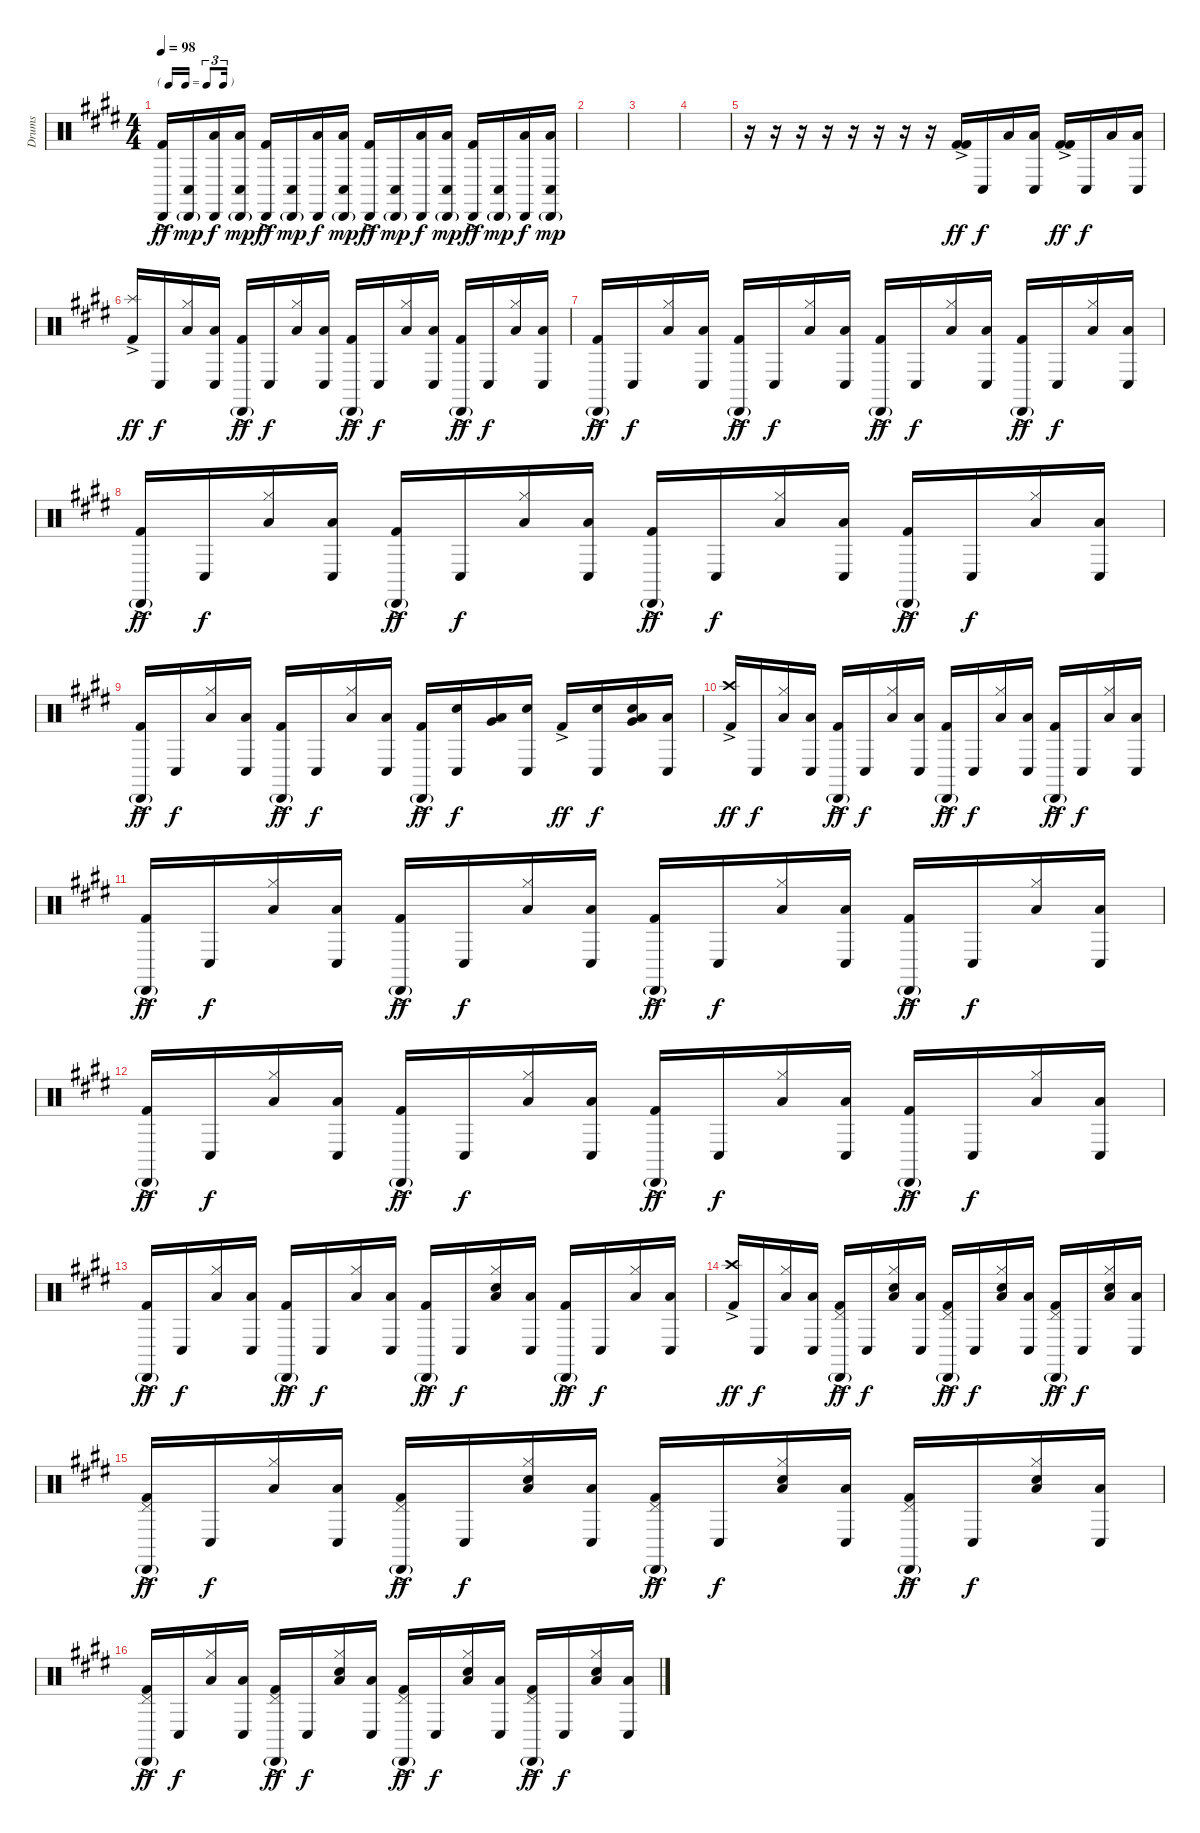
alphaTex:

\track ("Drums" "Drums") {instrument percussion}
\staff {score}
\articulation defaults
\ts (4 4)
\tf triplet16th
\tempo 98
\clef neutral
\ks e
("Cabasa (hit)" "Kick (hit) 2"{ac}).16{dy ff} ("Cabasa (hit)"{g} "Conga low (hit)").16{dy mp} ("Cabasa (hit)" "Low Tom (hit)").16{dy f} ("Cabasa (hit)"{g} "Low Tom (hit)" "Conga low (hit)").16{dy mp} ("Cabasa (hit)" "Kick (hit) 2"{ac}).16{dy ff} ("Cabasa (hit)"{g} "Conga low (hit)").16{dy mp} ("Cabasa (hit)" "Low Tom (hit)").16{dy f} ("Cabasa (hit)"{g} "Low Tom (hit)" "Conga low (hit)").16{dy mp} ("Cabasa (hit)" "Kick (hit) 2"{ac}).16{dy ff} ("Cabasa (hit)"{g} "Conga low (hit)").16{dy mp} ("Cabasa (hit)" "Low Tom (hit)").16{dy f} ("Cabasa (hit)"{g} "Low Tom (hit)" "Conga low (hit)").16{dy mp} ("Cabasa (hit)" "Kick (hit) 2"{ac}).16{dy ff} ("Cabasa (hit)"{g} "Conga low (hit)").16{dy mp} ("Cabasa (hit)" "Low Tom (hit)").16{dy f} ("Cabasa (hit)"{g} "Low Tom (hit)" "Conga low (hit)").16{dy mp} |
|
|
|
r.16 r.16 r.16 r.16 r.16 r.16 r.16 r.16 ("Kick (hit) 2"{ac} "Kick (hit) 2"{ac}).16{dy ff} "Conga low (hit)".16{dy f} "Low Tom (hit)".16 ("Low Tom (hit)" "Conga low (hit)").16 ("Kick (hit) 2"{ac} "Kick (hit) 2"{ac}).16{dy ff} "Conga low (hit)".16{dy f} "Low Tom (hit)".16 ("Low Tom (hit)" "Conga low (hit)").16 |
("Splash (hit)" "Kick (hit) 2"{ac}).16{dy ff} "Conga low (hit)".16{dy f} ("Hi-Hat (closed)" "Low Tom (hit)").16 ("Low Tom (hit)" "Conga low (hit)").16 ("Cabasa (hit)"{g} "Kick (hit) 2"{ac}).16{dy ff} "Conga low (hit)".16{dy f} ("Hi-Hat (closed)" "Low Tom (hit)").16 ("Low Tom (hit)" "Conga low (hit)").16 ("Cabasa (hit)"{g} "Kick (hit) 2"{ac}).16{dy ff} "Conga low (hit)".16{dy f} ("Hi-Hat (closed)" "Low Tom (hit)").16 ("Low Tom (hit)" "Conga low (hit)").16 ("Cabasa (hit)"{g} "Kick (hit) 2"{ac}).16{dy ff} "Conga low (hit)".16{dy f} ("Hi-Hat (closed)" "Low Tom (hit)").16 ("Low Tom (hit)" "Conga low (hit)").16 |
("Cabasa (hit)"{g} "Kick (hit) 2"{ac}).16{dy ff} "Conga low (hit)".16{dy f} ("Hi-Hat (closed)" "Low Tom (hit)").16 ("Low Tom (hit)" "Conga low (hit)").16 ("Cabasa (hit)"{g} "Kick (hit) 2"{ac}).16{dy ff} "Conga low (hit)".16{dy f} ("Hi-Hat (closed)" "Low Tom (hit)").16 ("Low Tom (hit)" "Conga low (hit)").16 ("Cabasa (hit)"{g} "Kick (hit) 2"{ac}).16{dy ff} "Conga low (hit)".16{dy f} ("Hi-Hat (closed)" "Low Tom (hit)").16 ("Low Tom (hit)" "Conga low (hit)").16 ("Cabasa (hit)"{g} "Kick (hit) 2"{ac}).16{dy ff} "Conga low (hit)".16{dy f} ("Hi-Hat (closed)" "Low Tom (hit)").16 ("Low Tom (hit)" "Conga low (hit)").16 |
("Cabasa (hit)"{g} "Kick (hit) 2"{ac}).16{dy ff} "Conga low (hit)".16{dy f} ("Hi-Hat (closed)" "Low Tom (hit)").16 ("Low Tom (hit)" "Conga low (hit)").16 ("Cabasa (hit)"{g} "Kick (hit) 2"{ac}).16{dy ff} "Conga low (hit)".16{dy f} ("Hi-Hat (closed)" "Low Tom (hit)").16 ("Low Tom (hit)" "Conga low (hit)").16 ("Cabasa (hit)"{g} "Kick (hit) 2"{ac}).16{dy ff} "Conga low (hit)".16{dy f} ("Hi-Hat (closed)" "Low Tom (hit)").16 ("Low Tom (hit)" "Conga low (hit)").16 ("Cabasa (hit)"{g} "Kick (hit) 2"{ac}).16{dy ff} "Conga low (hit)".16{dy f} ("Hi-Hat (closed)" "Low Tom (hit)").16 ("Low Tom (hit)" "Conga low (hit)").16 |
("Cabasa (hit)"{g} "Kick (hit) 2"{ac}).16{dy ff} "Conga low (hit)".16{dy f} ("Hi-Hat (closed)" "Low Tom (hit)").16 ("Low Tom (hit)" "Conga low (hit)").16 ("Cabasa (hit)"{g} "Kick (hit) 2"{ac}).16{dy ff} "Conga low (hit)".16{dy f} ("Hi-Hat (closed)" "Low Tom (hit)").16 ("Low Tom (hit)" "Conga low (hit)").16 ("Cabasa (hit)"{g} "Kick (hit) 2"{ac}).16{dy ff} ("Conga low (hit)" "Electric Snare (hit)").16{dy f} ("Low Tom (hit)" "Very Low Tom (hit)").16 ("Conga low (hit)" "Electric Snare (hit)").16 "Kick (hit) 2"{ac}.16{dy ff} ("Conga low (hit)" "Electric Snare (hit)").16{dy f} ("Low Tom (hit)" "Very Low Tom (hit)" "Electric Snare (hit)").16 ("Low Tom (hit)" "Conga low (hit)").16 |
("Crash high (hit)" "Kick (hit) 2"{ac}).16{dy ff} "Conga low (hit)".16{dy f} ("Hi-Hat (closed)" "Low Tom (hit)").16 ("Low Tom (hit)" "Conga low (hit)").16 ("Cabasa (hit)"{g} "Kick (hit) 2"{ac}).16{dy ff} "Conga low (hit)".16{dy f} ("Hi-Hat (closed)" "Low Tom (hit)").16 ("Low Tom (hit)" "Conga low (hit)").16 ("Cabasa (hit)"{g} "Kick (hit) 2"{ac}).16{dy ff} "Conga low (hit)".16{dy f} ("Hi-Hat (closed)" "Low Tom (hit)").16 ("Low Tom (hit)" "Conga low (hit)").16 ("Cabasa (hit)"{g} "Kick (hit) 2"{ac}).16{dy ff} "Conga low (hit)".16{dy f} ("Hi-Hat (closed)" "Low Tom (hit)").16 ("Low Tom (hit)" "Conga low (hit)").16 |
("Cabasa (hit)"{g} "Kick (hit) 2"{ac}).16{dy ff} "Conga low (hit)".16{dy f} ("Hi-Hat (closed)" "Low Tom (hit)").16 ("Low Tom (hit)" "Conga low (hit)").16 ("Cabasa (hit)"{g} "Kick (hit) 2"{ac}).16{dy ff} "Conga low (hit)".16{dy f} ("Hi-Hat (closed)" "Low Tom (hit)").16 ("Low Tom (hit)" "Conga low (hit)").16 ("Cabasa (hit)"{g} "Kick (hit) 2"{ac}).16{dy ff} "Conga low (hit)".16{dy f} ("Hi-Hat (closed)" "Low Tom (hit)").16 ("Low Tom (hit)" "Conga low (hit)").16 ("Cabasa (hit)"{g} "Kick (hit) 2"{ac}).16{dy ff} "Conga low (hit)".16{dy f} ("Hi-Hat (closed)" "Low Tom (hit)").16 ("Low Tom (hit)" "Conga low (hit)").16 |
("Cabasa (hit)"{g} "Kick (hit) 2"{ac}).16{dy ff} "Conga low (hit)".16{dy f} ("Hi-Hat (closed)" "Low Tom (hit)").16 ("Low Tom (hit)" "Conga low (hit)").16 ("Cabasa (hit)"{g} "Kick (hit) 2"{ac}).16{dy ff} "Conga low (hit)".16{dy f} ("Hi-Hat (closed)" "Low Tom (hit)").16 ("Low Tom (hit)" "Conga low (hit)").16 ("Cabasa (hit)"{g} "Kick (hit) 2"{ac}).16{dy ff} "Conga low (hit)".16{dy f} ("Hi-Hat (closed)" "Low Tom (hit)").16 ("Low Tom (hit)" "Conga low (hit)").16 ("Cabasa (hit)"{g} "Kick (hit) 2"{ac}).16{dy ff} "Conga low (hit)".16{dy f} ("Hi-Hat (closed)" "Low Tom (hit)").16 ("Low Tom (hit)" "Conga low (hit)").16 |
("Cabasa (hit)"{g} "Kick (hit) 2"{ac}).16{dy ff} "Conga low (hit)".16{dy f} ("Hi-Hat (closed)" "Low Tom (hit)").16 ("Low Tom (hit)" "Conga low (hit)").16 ("Cabasa (hit)"{g} "Kick (hit) 2"{ac}).16{dy ff} "Conga low (hit)".16{dy f} ("Hi-Hat (closed)" "Low Tom (hit)").16 ("Low Tom (hit)" "Conga low (hit)").16 ("Cabasa (hit)"{g} "Kick (hit) 2"{ac}).16{dy ff} "Conga low (hit)".16{dy f} ("Hi-Hat (closed)" "Low Tom (hit)" "Snare (hit) 2").16 ("Low Tom (hit)" "Conga low (hit)").16 ("Cabasa (hit)"{g} "Kick (hit) 2"{ac}).16{dy ff} "Conga low (hit)".16{dy f} ("Hi-Hat (closed)" "Low Tom (hit)").16 ("Low Tom (hit)" "Conga low (hit)").16 |
("Crash high (hit)" "Kick (hit) 2"{ac}).16{dy ff} "Conga low (hit)".16{dy f} ("Hi-Hat (closed)" "Low Tom (hit)").16 ("Low Tom (hit)" "Conga low (hit)").16 ("Pedal Hi-Hat (hit)" "Cabasa (hit)"{g} "Kick (hit) 2"{ac}).16{dy ff} "Conga low (hit)".16{dy f} ("Hi-Hat (closed)" "Low Tom (hit)" "Hand Clap (hit)").16 ("Low Tom (hit)" "Conga low (hit)").16 ("Pedal Hi-Hat (hit)" "Cabasa (hit)"{g} "Kick (hit) 2"{ac}).16{dy ff} "Conga low (hit)".16{dy f} ("Hi-Hat (closed)" "Low Tom (hit)" "Hand Clap (hit)").16 ("Low Tom (hit)" "Conga low (hit)").16 ("Pedal Hi-Hat (hit)" "Cabasa (hit)"{g} "Kick (hit) 2"{ac}).16{dy ff} "Conga low (hit)".16{dy f} ("Hi-Hat (closed)" "Low Tom (hit)" "Hand Clap (hit)").16 ("Low Tom (hit)" "Conga low (hit)").16 |
("Pedal Hi-Hat (hit)" "Cabasa (hit)"{g} "Kick (hit) 2"{ac}).16{dy ff} "Conga low (hit)".16{dy f} ("Hi-Hat (closed)" "Low Tom (hit)").16 ("Low Tom (hit)" "Conga low (hit)").16 ("Pedal Hi-Hat (hit)" "Cabasa (hit)"{g} "Kick (hit) 2"{ac}).16{dy ff} "Conga low (hit)".16{dy f} ("Hi-Hat (closed)" "Low Tom (hit)" "Hand Clap (hit)").16 ("Low Tom (hit)" "Conga low (hit)").16 ("Pedal Hi-Hat (hit)" "Cabasa (hit)"{g} "Kick (hit) 2"{ac}).16{dy ff} "Conga low (hit)".16{dy f} ("Hi-Hat (closed)" "Low Tom (hit)" "Hand Clap (hit)").16 ("Low Tom (hit)" "Conga low (hit)").16 ("Pedal Hi-Hat (hit)" "Cabasa (hit)"{g} "Kick (hit) 2"{ac}).16{dy ff} "Conga low (hit)".16{dy f} ("Hi-Hat (closed)" "Low Tom (hit)" "Hand Clap (hit)").16 ("Low Tom (hit)" "Conga low (hit)").16 |
("Pedal Hi-Hat (hit)" "Cabasa (hit)"{g} "Kick (hit) 2"{ac}).16{dy ff} "Conga low (hit)".16{dy f} ("Hi-Hat (closed)" "Low Tom (hit)").16 ("Low Tom (hit)" "Conga low (hit)").16 ("Pedal Hi-Hat (hit)" "Cabasa (hit)"{g} "Kick (hit) 2"{ac}).16{dy ff} "Conga low (hit)".16{dy f} ("Hi-Hat (closed)" "Low Tom (hit)" "Hand Clap (hit)").16 ("Low Tom (hit)" "Conga low (hit)").16 ("Pedal Hi-Hat (hit)" "Cabasa (hit)"{g} "Kick (hit) 2"{ac}).16{dy ff} "Conga low (hit)".16{dy f} ("Hi-Hat (closed)" "Low Tom (hit)" "Hand Clap (hit)").16 ("Low Tom (hit)" "Conga low (hit)").16 ("Pedal Hi-Hat (hit)" "Cabasa (hit)"{g} "Kick (hit) 2"{ac}).16{dy ff} "Conga low (hit)".16{dy f} ("Hi-Hat (closed)" "Low Tom (hit)" "Hand Clap (hit)").16 ("Low Tom (hit)" "Conga low (hit)").16
